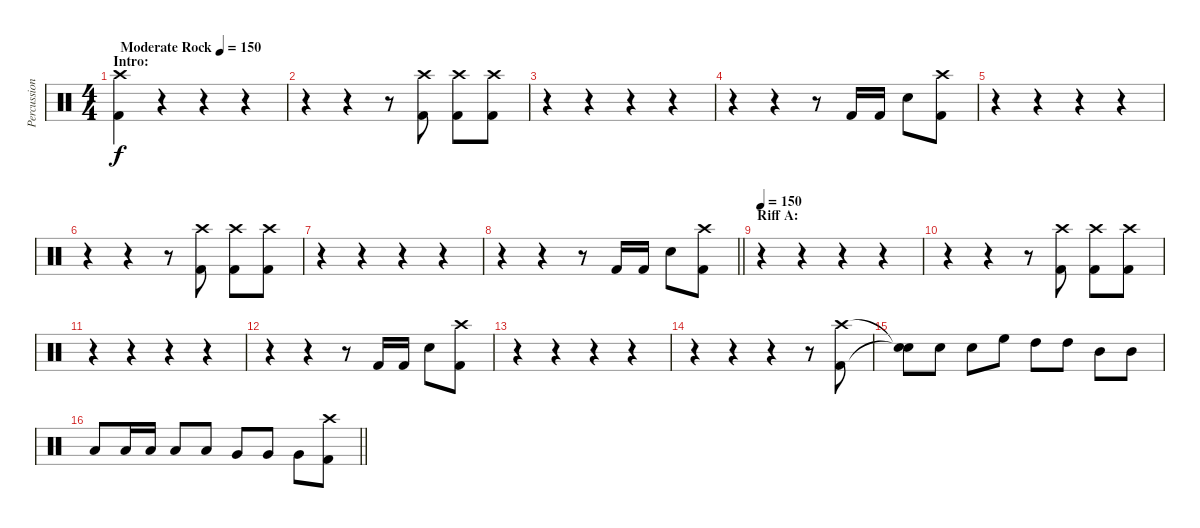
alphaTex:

\track ("Percussion" "Percussion") {instrument percussion}
\staff {score}
\articulation defaults
\ts (4 4)
\section ("" "Intro:")
\tempo (150 "Moderate Rock")
\tempo 165
\tempo (150 "Moderate Rock")
\clef neutral
\ks c
("Crash high (hit)" "Kick (hit) 2").4{dy f} r.4 r.4 r.4 |
r.4 r.4 r.8 ("Crash high (hit)" "Kick (hit) 2").8 ("Crash high (hit)" "Kick (hit) 2").8 ("Crash high (hit)" "Kick (hit) 2").8 |
r.4 r.4 r.4 r.4 |
r.4 r.4 r.8 "Kick (hit) 2".16 "Kick (hit) 2".16 "Snare (hit) 2".8 ("Crash high (hit)" "Kick (hit) 2").8 |
r.4 r.4 r.4 r.4 |
r.4 r.4 r.8 ("Crash high (hit)" "Kick (hit) 2").8 ("Crash high (hit)" "Kick (hit) 2").8 ("Crash high (hit)" "Kick (hit) 2").8 |
r.4 r.4 r.4 r.4 |
\barLineRight lightlight
r.4 r.4 r.8 "Kick (hit) 2".16 "Kick (hit) 2".16 "Snare (hit) 2".8 ("Crash high (hit)" "Kick (hit) 2").8 |
\section ("" "Riff A:")
\tempo 150
r.4 r.4 r.4 r.4 |
r.4 r.4 r.8 ("Crash high (hit)" "Kick (hit) 2").8 ("Crash high (hit)" "Kick (hit) 2").8 ("Crash high (hit)" "Kick (hit) 2").8 |
r.4 r.4 r.4 r.4 |
r.4 r.4 r.8 "Kick (hit) 2".16 "Kick (hit) 2".16 "Snare (hit) 2".8 ("Crash high (hit)" "Kick (hit) 2").8 |
r.4 r.4 r.4 r.4 |
r.4 r.4 r.4 r.8 ("Crash high (hit)" "Kick (hit) 2").8 |
("Snare (hit)"{t} "Snare (hit)"{t}).8 "Snare (hit) 2".8 "Snare (hit) 2".8 "High Floor Tom (hit)".8 "High Tom (hit)".8 "High Tom (hit)".8 "Mid Tom (hit)".8 "Mid Tom (hit)".8 |
\barLineRight lightlight "Low Tom (hit)".8 "Low Tom (hit)".16 "Low Tom (hit)".16 "Low Tom (hit)".8 "Low Tom (hit)".8 "Very Low Tom (hit)".8 "Very Low Tom (hit)".8 "Very Low Tom (hit)".8
("Crash high (hit)" "Kick (hit) 2").8
